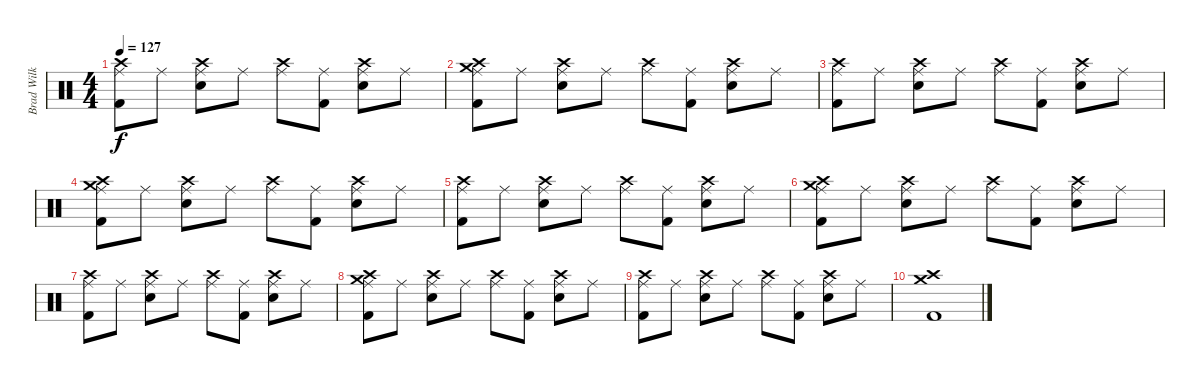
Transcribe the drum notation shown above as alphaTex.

\track ("Brad Wilk" "Brad Wilk") {instrument percussion}
\staff {score}
\articulation defaults
\ts (4 4)
\tempo 127
\clef neutral
\ks c
("Crash high (hit)" "Ride (middle)" "Kick (hit) 2").8{dy f} "Ride (middle)".8 ("Crash high (hit)" "Electric Snare (hit)" "Ride (middle)").8 "Ride (middle)".8 ("Crash high (hit)" "Ride (middle)").8 ("Ride (middle)" "Kick (hit) 2").8 ("Crash high (hit)" "Electric Snare (hit)" "Ride (middle)").8 "Ride (middle)".8 |
("Crash medium (hit)" "Crash high (hit)" "Ride (middle)" "Kick (hit) 2").8 "Ride (middle)".8 ("Crash high (hit)" "Electric Snare (hit)" "Ride (middle)").8 "Ride (middle)".8 ("Crash high (hit)" "Ride (middle)").8 ("Ride (middle)" "Kick (hit) 2").8 ("Crash high (hit)" "Electric Snare (hit)" "Ride (middle)").8 "Ride (middle)".8 |
("Crash high (hit)" "Ride (middle)" "Kick (hit) 2").8 "Ride (middle)".8 ("Crash high (hit)" "Electric Snare (hit)" "Ride (middle)").8 "Ride (middle)".8 ("Crash high (hit)" "Ride (middle)").8 ("Ride (middle)" "Kick (hit) 2").8 ("Crash high (hit)" "Electric Snare (hit)" "Ride (middle)").8 "Ride (middle)".8 |
("Crash medium (hit)" "Crash high (hit)" "Ride (middle)" "Kick (hit) 2").8 "Ride (middle)".8 ("Crash high (hit)" "Electric Snare (hit)" "Ride (middle)").8 "Ride (middle)".8 ("Crash high (hit)" "Ride (middle)").8 ("Ride (middle)" "Kick (hit) 2").8 ("Crash high (hit)" "Electric Snare (hit)" "Ride (middle)").8 "Ride (middle)".8 |
("Crash high (hit)" "Ride (middle)" "Kick (hit) 2").8 "Ride (middle)".8 ("Crash high (hit)" "Electric Snare (hit)" "Ride (middle)").8 "Ride (middle)".8 ("Crash high (hit)" "Ride (middle)").8 ("Ride (middle)" "Kick (hit) 2").8 ("Crash high (hit)" "Electric Snare (hit)" "Ride (middle)").8 "Ride (middle)".8 |
("Crash medium (hit)" "Crash high (hit)" "Ride (middle)" "Kick (hit) 2").8 "Ride (middle)".8 ("Crash high (hit)" "Electric Snare (hit)" "Ride (middle)").8 "Ride (middle)".8 ("Crash high (hit)" "Ride (middle)").8 ("Ride (middle)" "Kick (hit) 2").8 ("Crash high (hit)" "Electric Snare (hit)" "Ride (middle)").8 "Ride (middle)".8 |
("Crash high (hit)" "Ride (middle)" "Kick (hit) 2").8 "Ride (middle)".8 ("Crash high (hit)" "Electric Snare (hit)" "Ride (middle)").8 "Ride (middle)".8 ("Crash high (hit)" "Ride (middle)").8 ("Ride (middle)" "Kick (hit) 2").8 ("Crash high (hit)" "Electric Snare (hit)" "Ride (middle)").8 "Ride (middle)".8 |
("Crash medium (hit)" "Crash high (hit)" "Ride (middle)" "Kick (hit) 2").8 "Ride (middle)".8 ("Crash high (hit)" "Electric Snare (hit)" "Ride (middle)").8 "Ride (middle)".8 ("Crash high (hit)" "Ride (middle)").8 ("Ride (middle)" "Kick (hit) 2").8 ("Crash high (hit)" "Electric Snare (hit)" "Ride (middle)").8 "Ride (middle)".8 |
("Crash high (hit)" "Ride (middle)" "Kick (hit) 2").8 "Ride (middle)".8 ("Crash high (hit)" "Electric Snare (hit)" "Ride (middle)").8 "Ride (middle)".8 ("Crash high (hit)" "Ride (middle)").8 ("Ride (middle)" "Kick (hit) 2").8 ("Crash high (hit)" "Electric Snare (hit)" "Ride (middle)").8 "Ride (middle)".8 |
("Crash medium (hit)" "Crash high (hit)" "Kick (hit) 2").1
